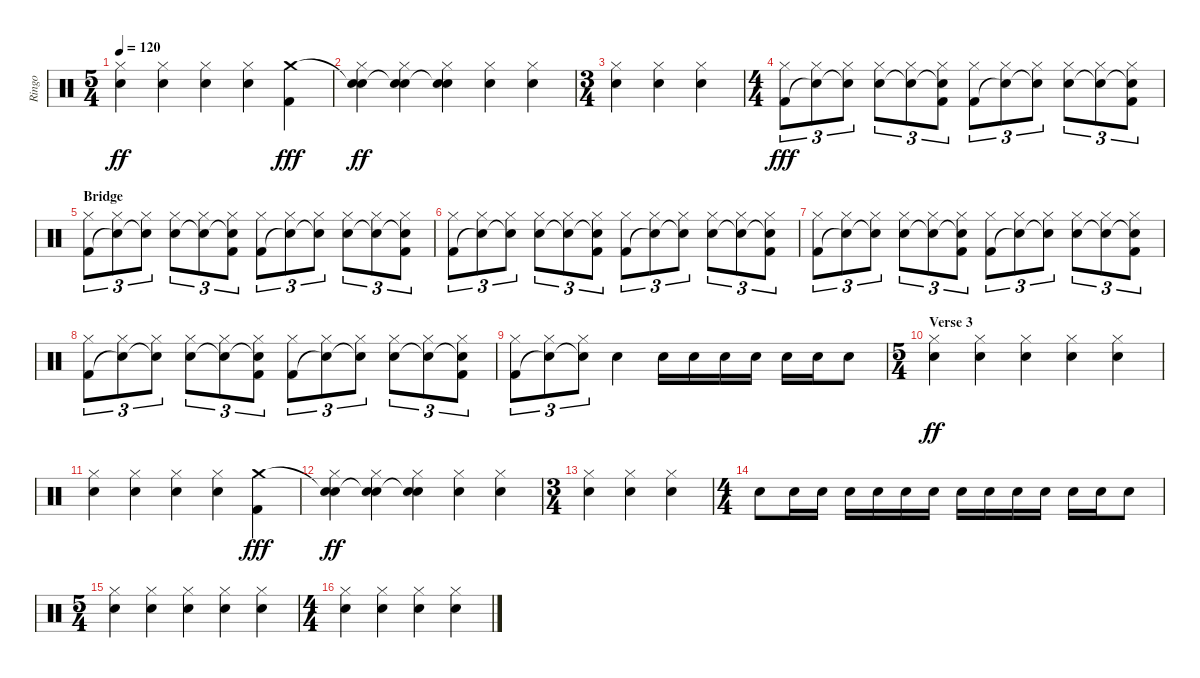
\track ("Ringo" "Ringo") {instrument percussion}
\staff {score}
\articulation defaults
\ts (5 4)
\tempo 120
\clef neutral
\ks c
("Hi-Hat (closed)" "Snare (hit) 2").4{dy ff} ("Hi-Hat (closed)" "Snare (hit) 2").4 ("Hi-Hat (closed)" "Snare (hit) 2").4 ("Hi-Hat (closed)" "Snare (hit) 2").4 ("Crash medium (hit)" "Kick (hit) 2").4{dy fff} |
("Snare (hit)"{t} "Hi-Hat (closed)" "Snare (hit) 2").4{dy ff} ("Snare (hit)"{t} "Hi-Hat (closed)" "Snare (hit) 2").4 ("Snare (hit)"{t} "Hi-Hat (closed)" "Snare (hit) 2").4 ("Hi-Hat (closed)" "Snare (hit) 2").4 ("Hi-Hat (closed)" "Snare (hit) 2").4 |
\ts (3 4)
("Hi-Hat (closed)" "Snare (hit) 2").4 ("Hi-Hat (closed)" "Snare (hit) 2").4 ("Hi-Hat (closed)" "Snare (hit) 2").4 |
\ts (4 4)
("Hi-Hat (closed)" "Kick (hit) 2").8{tu (3 2) dy fff} ("Hi-Hat (closed)" "Snare (hit)"{t}).8{tu (3 2)} ("Hi-Hat (closed)" "Snare (hit)"{t}).8{tu (3 2)} ("Hi-Hat (closed)" "Snare (hit) 2").8{tu (3 2)} ("Hi-Hat (closed)" "Snare (hit)"{t}).8{tu (3 2)} ("Hi-Hat (closed)" "Snare (hit)"{t} "Kick (hit) 2").8{tu (3 2)} ("Hi-Hat (closed)" "Kick (hit) 2").8{tu (3 2)} ("Hi-Hat (closed)" "Snare (hit)"{t}).8{tu (3 2)} ("Hi-Hat (closed)" "Snare (hit)"{t}).8{tu (3 2)} ("Hi-Hat (closed)" "Snare (hit) 2").8{tu (3 2)} ("Hi-Hat (closed)" "Snare (hit)"{t}).8{tu (3 2)} ("Hi-Hat (closed)" "Snare (hit)"{t} "Kick (hit) 2").8{tu (3 2)} |
\section ("" "Bridge")
("Hi-Hat (closed)" "Kick (hit) 2").8{tu (3 2)} ("Hi-Hat (closed)" "Snare (hit)"{t}).8{tu (3 2)} ("Hi-Hat (closed)" "Snare (hit)"{t}).8{tu (3 2)} ("Hi-Hat (closed)" "Snare (hit) 2").8{tu (3 2)} ("Hi-Hat (closed)" "Snare (hit)"{t}).8{tu (3 2)} ("Hi-Hat (closed)" "Snare (hit)"{t} "Kick (hit) 2").8{tu (3 2)} ("Hi-Hat (closed)" "Kick (hit) 2").8{tu (3 2)} ("Hi-Hat (closed)" "Snare (hit)"{t}).8{tu (3 2)} ("Hi-Hat (closed)" "Snare (hit)"{t}).8{tu (3 2)} ("Hi-Hat (closed)" "Snare (hit) 2").8{tu (3 2)} ("Hi-Hat (closed)" "Snare (hit)"{t}).8{tu (3 2)} ("Hi-Hat (closed)" "Snare (hit)"{t} "Kick (hit) 2").8{tu (3 2)} |
("Hi-Hat (closed)" "Kick (hit) 2").8{tu (3 2)} ("Hi-Hat (closed)" "Snare (hit)"{t}).8{tu (3 2)} ("Hi-Hat (closed)" "Snare (hit)"{t}).8{tu (3 2)} ("Hi-Hat (closed)" "Snare (hit) 2").8{tu (3 2)} ("Hi-Hat (closed)" "Snare (hit)"{t}).8{tu (3 2)} ("Hi-Hat (closed)" "Snare (hit)"{t} "Kick (hit) 2").8{tu (3 2)} ("Hi-Hat (closed)" "Kick (hit) 2").8{tu (3 2)} ("Hi-Hat (closed)" "Snare (hit)"{t}).8{tu (3 2)} ("Hi-Hat (closed)" "Snare (hit)"{t}).8{tu (3 2)} ("Hi-Hat (closed)" "Snare (hit) 2").8{tu (3 2)} ("Hi-Hat (closed)" "Snare (hit)"{t}).8{tu (3 2)} ("Hi-Hat (closed)" "Snare (hit)"{t} "Kick (hit) 2").8{tu (3 2)} |
("Hi-Hat (closed)" "Kick (hit) 2").8{tu (3 2)} ("Hi-Hat (closed)" "Snare (hit)"{t}).8{tu (3 2)} ("Hi-Hat (closed)" "Snare (hit)"{t}).8{tu (3 2)} ("Hi-Hat (closed)" "Snare (hit) 2").8{tu (3 2)} ("Hi-Hat (closed)" "Snare (hit)"{t}).8{tu (3 2)} ("Hi-Hat (closed)" "Snare (hit)"{t} "Kick (hit) 2").8{tu (3 2)} ("Hi-Hat (closed)" "Kick (hit) 2").8{tu (3 2)} ("Hi-Hat (closed)" "Snare (hit)"{t}).8{tu (3 2)} ("Hi-Hat (closed)" "Snare (hit)"{t}).8{tu (3 2)} ("Hi-Hat (closed)" "Snare (hit) 2").8{tu (3 2)} ("Hi-Hat (closed)" "Snare (hit)"{t}).8{tu (3 2)} ("Hi-Hat (closed)" "Snare (hit)"{t} "Kick (hit) 2").8{tu (3 2)} |
("Hi-Hat (closed)" "Kick (hit) 2").8{tu (3 2)} ("Hi-Hat (closed)" "Snare (hit)"{t}).8{tu (3 2)} ("Hi-Hat (closed)" "Snare (hit)"{t}).8{tu (3 2)} ("Hi-Hat (closed)" "Snare (hit) 2").8{tu (3 2)} ("Hi-Hat (closed)" "Snare (hit)"{t}).8{tu (3 2)} ("Hi-Hat (closed)" "Snare (hit)"{t} "Kick (hit) 2").8{tu (3 2)} ("Hi-Hat (closed)" "Kick (hit) 2").8{tu (3 2)} ("Hi-Hat (closed)" "Snare (hit)"{t}).8{tu (3 2)} ("Hi-Hat (closed)" "Snare (hit)"{t}).8{tu (3 2)} ("Hi-Hat (closed)" "Snare (hit) 2").8{tu (3 2)} ("Hi-Hat (closed)" "Snare (hit)"{t}).8{tu (3 2)} ("Hi-Hat (closed)" "Snare (hit)"{t} "Kick (hit) 2").8{tu (3 2)} |
("Hi-Hat (closed)" "Kick (hit) 2").8{tu (3 2)} ("Hi-Hat (closed)" "Snare (hit)"{t}).8{tu (3 2)} ("Hi-Hat (closed)" "Snare (hit)"{t}).8{tu (3 2)} "Snare (hit) 2".4 "Snare (hit) 2".16 "Snare (hit) 2".16 "Snare (hit) 2".16 "Snare (hit) 2".16 "Snare (hit) 2".16 "Snare (hit) 2".16 "Snare (hit) 2".8 |
\ts (5 4)
\section ("" "Verse 3")
("Hi-Hat (closed)" "Snare (hit) 2").4{dy ff} ("Hi-Hat (closed)" "Snare (hit) 2").4 ("Hi-Hat (closed)" "Snare (hit) 2").4 ("Hi-Hat (closed)" "Snare (hit) 2").4 ("Hi-Hat (closed)" "Snare (hit) 2").4 |
("Hi-Hat (closed)" "Snare (hit) 2").4 ("Hi-Hat (closed)" "Snare (hit) 2").4 ("Hi-Hat (closed)" "Snare (hit) 2").4 ("Hi-Hat (closed)" "Snare (hit) 2").4 ("Crash medium (hit)" "Kick (hit) 2").4{dy fff} |
("Snare (hit)"{t} "Hi-Hat (closed)" "Snare (hit) 2").4{dy ff} ("Snare (hit)"{t} "Hi-Hat (closed)" "Snare (hit) 2").4 ("Snare (hit)"{t} "Hi-Hat (closed)" "Snare (hit) 2").4 ("Hi-Hat (closed)" "Snare (hit) 2").4 ("Hi-Hat (closed)" "Snare (hit) 2").4 |
\ts (3 4)
("Hi-Hat (closed)" "Snare (hit) 2").4 ("Hi-Hat (closed)" "Snare (hit) 2").4 ("Hi-Hat (closed)" "Snare (hit) 2").4 |
\ts (4 4)
"Snare (hit) 2".8 "Snare (hit) 2".16 "Snare (hit) 2".16 "Snare (hit) 2".16 "Snare (hit) 2".16 "Snare (hit) 2".16 "Snare (hit) 2".16 "Snare (hit) 2".16 "Snare (hit) 2".16 "Snare (hit) 2".16 "Snare (hit) 2".16 "Snare (hit) 2".16 "Snare (hit) 2".16 "Snare (hit) 2".8 |
\ts (5 4)
("Hi-Hat (closed)" "Snare (hit) 2").4 ("Hi-Hat (closed)" "Snare (hit) 2").4 ("Hi-Hat (closed)" "Snare (hit) 2").4 ("Hi-Hat (closed)" "Snare (hit) 2").4 ("Hi-Hat (closed)" "Snare (hit) 2").4 |
\ts (4 4)
("Hi-Hat (closed)" "Snare (hit) 2").4 ("Hi-Hat (closed)" "Snare (hit) 2").4 ("Hi-Hat (closed)" "Snare (hit) 2").4 ("Hi-Hat (closed)" "Snare (hit) 2").4
